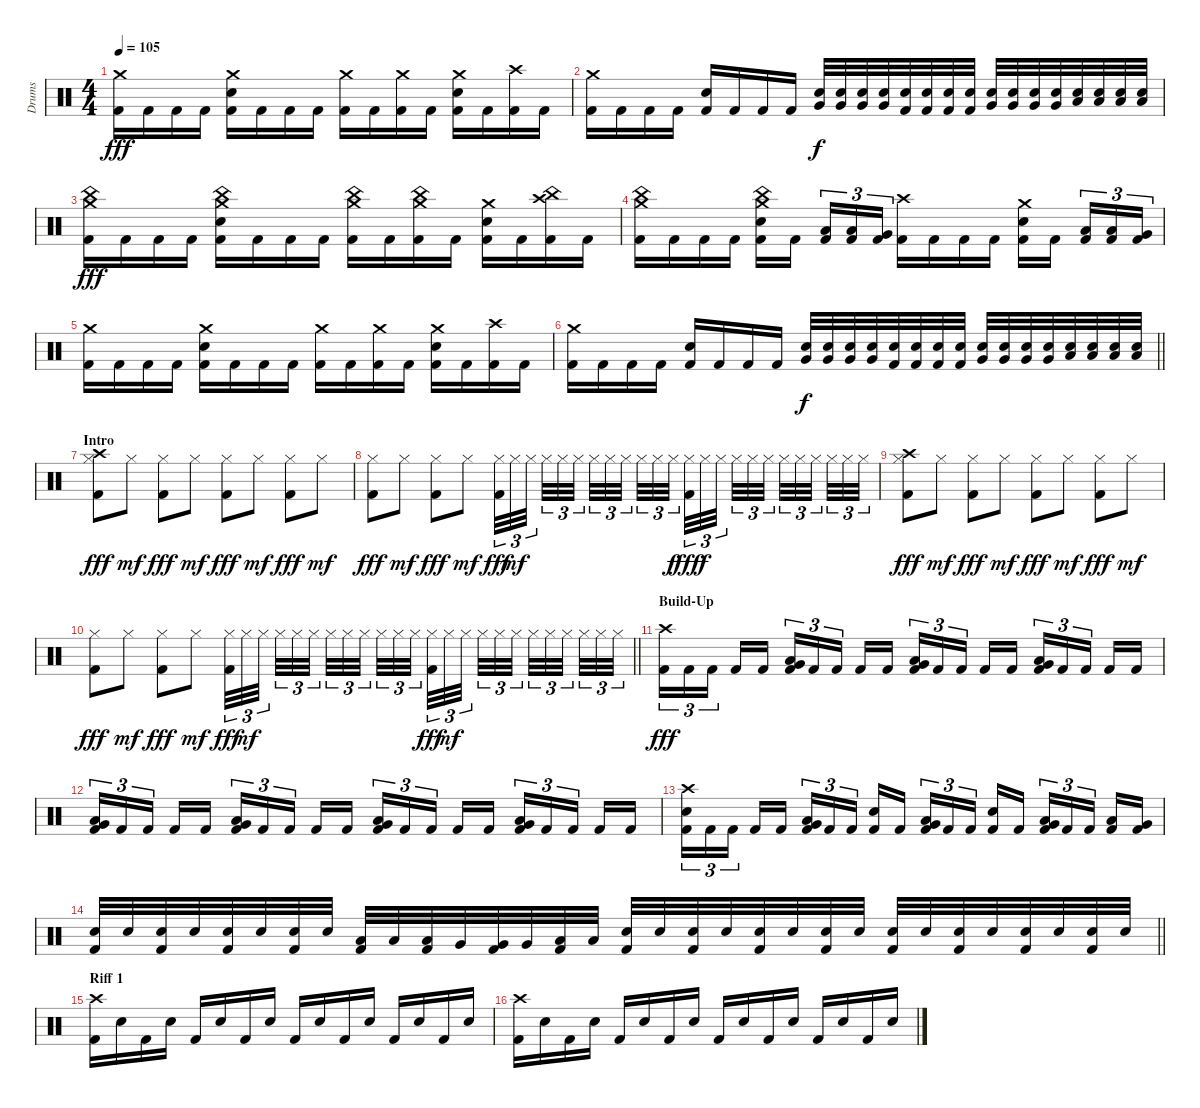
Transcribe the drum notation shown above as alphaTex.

\track ("Drums" "Drums") {instrument percussion}
\staff {score}
\articulation defaults
\ts (4 4)
\tempo 105
\clef neutral
\ks c
("Crash medium (hit)" "Kick (hit) 2").16{dy fff} "Kick (hit) 2".16 "Kick (hit) 2".16 "Kick (hit) 2".16 ("Crash medium (hit)" "Electric Snare (hit)" "Kick (hit) 2").16 "Kick (hit) 2".16 "Kick (hit) 2".16 "Kick (hit) 2".16 ("Crash medium (hit)" "Kick (hit) 2").16 "Kick (hit) 2".16 ("Crash medium (hit)" "Kick (hit) 2").16 "Kick (hit) 2".16 ("Crash medium (hit)" "Electric Snare (hit)" "Kick (hit) 2").16 "Kick (hit) 2".16 ("Crash high (hit)" "Kick (hit) 2").16 "Kick (hit) 2".16 |
("Crash medium (hit)" "Kick (hit) 2").16 "Kick (hit) 2".16 "Kick (hit) 2".16 "Kick (hit) 2".16 ("Electric Snare (hit)" "Kick (hit) 2").16 "Kick (hit) 2".16 "Kick (hit) 2".16 "Kick (hit) 2".16 ("Electric Snare (hit)" "Very Low Tom (hit)").32{dy f} ("Electric Snare (hit)" "Very Low Tom (hit)").32 ("Electric Snare (hit)" "Very Low Tom (hit)").32 ("Electric Snare (hit)" "Very Low Tom (hit)").32 ("Electric Snare (hit)" "Kick (hit) 2").32 ("Electric Snare (hit)" "Kick (hit) 2").32 ("Electric Snare (hit)" "Kick (hit) 2").32 ("Electric Snare (hit)" "Kick (hit) 2").32 ("Electric Snare (hit)" "Very Low Tom (hit)").32 ("Electric Snare (hit)" "Very Low Tom (hit)").32 ("Electric Snare (hit)" "Very Low Tom (hit)").32 ("Electric Snare (hit)" "Very Low Tom (hit)").32 ("Electric Snare (hit)" "Low Tom (hit)").32 ("Electric Snare (hit)" "Low Tom (hit)").32 ("Electric Snare (hit)" "Low Tom (hit)").32 ("Electric Snare (hit)" "Low Tom (hit)").32 |
("China (hit)" "Crash medium (hit)" "Kick (hit) 2").16{dy fff} "Kick (hit) 2".16 "Kick (hit) 2".16 "Kick (hit) 2".16 ("Crash medium (hit)" "China (hit)" "Electric Snare (hit)" "Kick (hit) 2").16 "Kick (hit) 2".16 "Kick (hit) 2".16 "Kick (hit) 2".16 ("Crash medium (hit)" "China (hit)" "Kick (hit) 2").16 "Kick (hit) 2".16 ("Crash medium (hit)" "China (hit)" "Kick (hit) 2").16 "Kick (hit) 2".16 ("Crash medium (hit)" "Electric Snare (hit)" "Kick (hit) 2").16 "Kick (hit) 2".16 ("Crash high (hit)" "China (hit)" "Kick (hit) 2").16 "Kick (hit) 2".16 |
("China (hit)" "Crash medium (hit)" "Kick (hit) 2").16 "Kick (hit) 2".16 "Kick (hit) 2".16 "Kick (hit) 2".16 ("Crash medium (hit)" "China (hit)" "Electric Snare (hit)" "Kick (hit) 2").16 "Kick (hit) 2".16{beam splitsecondary} ("Low Floor Tom (hit)" "Kick (hit) 2").16{tu (3 2)} ("Low Tom (hit)" "Kick (hit) 2").16{tu (3 2)} ("Very Low Tom (hit)" "Kick (hit) 2").16{tu (3 2)} ("Crash high (hit)" "Kick (hit) 2").16 "Kick (hit) 2".16 "Kick (hit) 2".16 "Kick (hit) 2".16 ("Crash medium (hit)" "Electric Snare (hit)" "Kick (hit) 2").16 "Kick (hit) 2".16{beam splitsecondary} ("Low Floor Tom (hit)" "Kick (hit) 2").16{tu (3 2)} ("Low Tom (hit)" "Kick (hit) 2").16{tu (3 2)} ("Very Low Tom (hit)" "Kick (hit) 2").16{tu (3 2)} |
("Crash medium (hit)" "Kick (hit) 2").16 "Kick (hit) 2".16 "Kick (hit) 2".16 "Kick (hit) 2".16 ("Crash medium (hit)" "Electric Snare (hit)" "Kick (hit) 2").16 "Kick (hit) 2".16 "Kick (hit) 2".16 "Kick (hit) 2".16 ("Crash medium (hit)" "Kick (hit) 2").16 "Kick (hit) 2".16 ("Crash medium (hit)" "Kick (hit) 2").16 "Kick (hit) 2".16 ("Crash medium (hit)" "Electric Snare (hit)" "Kick (hit) 2").16 "Kick (hit) 2".16 ("Crash high (hit)" "Kick (hit) 2").16 "Kick (hit) 2".16 |
\barLineRight lightlight
("Crash medium (hit)" "Kick (hit) 2").16 "Kick (hit) 2".16 "Kick (hit) 2".16 "Kick (hit) 2".16 ("Electric Snare (hit)" "Kick (hit) 2").16 "Kick (hit) 2".16 "Kick (hit) 2".16 "Kick (hit) 2".16 ("Electric Snare (hit)" "Very Low Tom (hit)").32{dy f} ("Electric Snare (hit)" "Very Low Tom (hit)").32 ("Electric Snare (hit)" "Very Low Tom (hit)").32 ("Electric Snare (hit)" "Very Low Tom (hit)").32 ("Electric Snare (hit)" "Kick (hit) 2").32 ("Electric Snare (hit)" "Kick (hit) 2").32 ("Electric Snare (hit)" "Kick (hit) 2").32 ("Electric Snare (hit)" "Kick (hit) 2").32 ("Electric Snare (hit)" "Very Low Tom (hit)").32 ("Electric Snare (hit)" "Very Low Tom (hit)").32 ("Electric Snare (hit)" "Very Low Tom (hit)").32 ("Electric Snare (hit)" "Very Low Tom (hit)").32 ("Electric Snare (hit)" "Low Tom (hit)").32 ("Electric Snare (hit)" "Low Tom (hit)").32 ("Electric Snare (hit)" "Low Tom (hit)").32 ("Electric Snare (hit)" "Low Tom (hit)").32 |
\section ("" "Intro")
("Crash high (hit)" "Hi-Hat (closed)" "Kick (hit) 2").8{dy fff} "Hi-Hat (closed)".8{dy mf} ("Hi-Hat (closed)" "Kick (hit) 2").8{dy fff} "Hi-Hat (closed)".8{dy mf} ("Hi-Hat (closed)" "Kick (hit) 2").8{dy fff} "Hi-Hat (closed)".8{dy mf} ("Hi-Hat (closed)" "Kick (hit) 2").8{dy fff} "Hi-Hat (closed)".8{dy mf} |
("Hi-Hat (closed)" "Kick (hit) 2").8{dy fff} "Hi-Hat (closed)".8{dy mf} ("Hi-Hat (closed)" "Kick (hit) 2").8{dy fff} "Hi-Hat (closed)".8{dy mf} ("Hi-Hat (closed)" "Kick (hit) 2").32{tu (3 2) dy fff} "Hi-Hat (closed)".32{tu (3 2) dy mf} "Hi-Hat (closed)".32{tu (3 2) beam splitsecondary} "Hi-Hat (closed)".32{tu (3 2)} "Hi-Hat (closed)".32{tu (3 2)} "Hi-Hat (closed)".32{tu (3 2) beam splitsecondary} "Hi-Hat (closed)".32{tu (3 2)} "Hi-Hat (closed)".32{tu (3 2)} "Hi-Hat (closed)".32{tu (3 2) beam splitsecondary} "Hi-Hat (closed)".32{tu (3 2)} "Hi-Hat (closed)".32{tu (3 2)} "Hi-Hat (closed)".32{tu (3 2) dy f} ("Hi-Hat (closed)" "Kick (hit) 2").32{tu (3 2) dy fff} "Hi-Hat (closed)".32{tu (3 2) dy f} "Hi-Hat (closed)".32{tu (3 2) beam splitsecondary} "Hi-Hat (closed)".32{tu (3 2)} "Hi-Hat (closed)".32{tu (3 2)} "Hi-Hat (closed)".32{tu (3 2) beam splitsecondary} "Hi-Hat (closed)".32{tu (3 2)} "Hi-Hat (closed)".32{tu (3 2)} "Hi-Hat (closed)".32{tu (3 2) beam splitsecondary} "Hi-Hat (closed)".32{tu (3 2)} "Hi-Hat (closed)".32{tu (3 2)} "Hi-Hat (closed)".32{tu (3 2)} |
("Crash high (hit)" "Hi-Hat (closed)" "Kick (hit) 2").8{dy fff} "Hi-Hat (closed)".8{dy mf} ("Hi-Hat (closed)" "Kick (hit) 2").8{dy fff} "Hi-Hat (closed)".8{dy mf} ("Hi-Hat (closed)" "Kick (hit) 2").8{dy fff} "Hi-Hat (closed)".8{dy mf} ("Hi-Hat (closed)" "Kick (hit) 2").8{dy fff} "Hi-Hat (closed)".8{dy mf} |
\barLineRight lightlight
("Hi-Hat (closed)" "Kick (hit) 2").8{dy fff} "Hi-Hat (closed)".8{dy mf} ("Hi-Hat (closed)" "Kick (hit) 2").8{dy fff} "Hi-Hat (closed)".8{dy mf} ("Hi-Hat (closed)" "Kick (hit) 2").32{tu (3 2) dy fff} "Hi-Hat (closed)".32{tu (3 2) dy mf} "Hi-Hat (closed)".32{tu (3 2) beam splitsecondary} "Hi-Hat (closed)".32{tu (3 2)} "Hi-Hat (closed)".32{tu (3 2)} "Hi-Hat (closed)".32{tu (3 2) beam splitsecondary} "Hi-Hat (closed)".32{tu (3 2)} "Hi-Hat (closed)".32{tu (3 2)} "Hi-Hat (closed)".32{tu (3 2) beam splitsecondary} "Hi-Hat (closed)".32{tu (3 2)} "Hi-Hat (closed)".32{tu (3 2)} "Hi-Hat (closed)".32{tu (3 2)} ("Hi-Hat (closed)" "Kick (hit) 2").32{tu (3 2) dy fff} "Hi-Hat (closed)".32{tu (3 2) dy mf} "Hi-Hat (closed)".32{tu (3 2) beam splitsecondary} "Hi-Hat (closed)".32{tu (3 2)} "Hi-Hat (closed)".32{tu (3 2)} "Hi-Hat (closed)".32{tu (3 2) beam splitsecondary} "Hi-Hat (closed)".32{tu (3 2)} "Hi-Hat (closed)".32{tu (3 2)} "Hi-Hat (closed)".32{tu (3 2) beam splitsecondary} "Hi-Hat (closed)".32{tu (3 2)} "Hi-Hat (closed)".32{tu (3 2)} "Hi-Hat (closed)".32{tu (3 2)} |
\section ("" "Build-Up")
("Crash high (hit)" "Kick (hit) 2").16{tu (3 2) dy fff} "Kick (hit) 2".16{tu (3 2)} "Kick (hit) 2".16{tu (3 2) beam splitsecondary} "Kick (hit) 2".16 "Kick (hit) 2".16 ("Low Floor Tom (hit)" "Very Low Tom (hit)" "Kick (hit) 2").16{tu (3 2)} "Kick (hit) 2".16{tu (3 2)} "Kick (hit) 2".16{tu (3 2) beam splitsecondary} "Kick (hit) 2".16 "Kick (hit) 2".16 ("Low Floor Tom (hit)" "Very Low Tom (hit)" "Kick (hit) 2").16{tu (3 2)} "Kick (hit) 2".16{tu (3 2)} "Kick (hit) 2".16{tu (3 2) beam splitsecondary} "Kick (hit) 2".16 "Kick (hit) 2".16 ("Low Floor Tom (hit)" "Very Low Tom (hit)" "Kick (hit) 2").16{tu (3 2)} "Kick (hit) 2".16{tu (3 2)} "Kick (hit) 2".16{tu (3 2) beam splitsecondary} "Kick (hit) 2".16 "Kick (hit) 2".16 |
("Low Floor Tom (hit)" "Very Low Tom (hit)" "Kick (hit) 2").16{tu (3 2)} "Kick (hit) 2".16{tu (3 2)} "Kick (hit) 2".16{tu (3 2) beam splitsecondary} "Kick (hit) 2".16 "Kick (hit) 2".16 ("Low Floor Tom (hit)" "Very Low Tom (hit)" "Kick (hit) 2").16{tu (3 2)} "Kick (hit) 2".16{tu (3 2)} "Kick (hit) 2".16{tu (3 2) beam splitsecondary} "Kick (hit) 2".16 "Kick (hit) 2".16 ("Low Floor Tom (hit)" "Very Low Tom (hit)" "Kick (hit) 2").16{tu (3 2)} "Kick (hit) 2".16{tu (3 2)} "Kick (hit) 2".16{tu (3 2) beam splitsecondary} "Kick (hit) 2".16 "Kick (hit) 2".16 ("Low Floor Tom (hit)" "Very Low Tom (hit)" "Kick (hit) 2").16{tu (3 2)} "Kick (hit) 2".16{tu (3 2)} "Kick (hit) 2".16{tu (3 2) beam splitsecondary} "Kick (hit) 2".16 "Kick (hit) 2".16 |
("Crash high (hit)" "Electric Snare (hit)" "Kick (hit) 2").16{tu (3 2)} "Kick (hit) 2".16{tu (3 2)} "Kick (hit) 2".16{tu (3 2) beam splitsecondary} "Kick (hit) 2".16 "Kick (hit) 2".16 ("Low Floor Tom (hit)" "Very Low Tom (hit)" "Kick (hit) 2").16{tu (3 2)} "Kick (hit) 2".16{tu (3 2)} "Kick (hit) 2".16{tu (3 2) beam splitsecondary} ("Electric Snare (hit)" "Kick (hit) 2").16 "Kick (hit) 2".16 ("Low Floor Tom (hit)" "Very Low Tom (hit)" "Kick (hit) 2").16{tu (3 2)} "Kick (hit) 2".16{tu (3 2)} "Kick (hit) 2".16{tu (3 2) beam splitsecondary} ("Electric Snare (hit)" "Kick (hit) 2").16 "Kick (hit) 2".16 ("Low Floor Tom (hit)" "Very Low Tom (hit)" "Kick (hit) 2").16{tu (3 2)} "Kick (hit) 2".16{tu (3 2)} "Kick (hit) 2".16{tu (3 2) beam splitsecondary} ("Low Floor Tom (hit)" "Kick (hit) 2").16 ("Very Low Tom (hit)" "Kick (hit) 2").16 |
\barLineRight lightlight
("Electric Snare (hit)" "Kick (hit) 2").32 "Electric Snare (hit)".32 ("Electric Snare (hit)" "Kick (hit) 2").32 "Electric Snare (hit)".32 ("Electric Snare (hit)" "Kick (hit) 2").32 "Electric Snare (hit)".32 ("Electric Snare (hit)" "Kick (hit) 2").32 "Electric Snare (hit)".32 ("Low Floor Tom (hit)" "Kick (hit) 2").32 "Low Floor Tom (hit)".32 ("Low Floor Tom (hit)" "Kick (hit) 2").32 "Very Low Tom (hit)".32 ("Very Low Tom (hit)" "Kick (hit) 2").32 "Very Low Tom (hit)".32 ("Low Tom (hit)" "Kick (hit) 2").32 "Low Tom (hit)".32 ("Electric Snare (hit)" "Kick (hit) 2").32 "Electric Snare (hit)".32 ("Electric Snare (hit)" "Kick (hit) 2").32 "Electric Snare (hit)".32 ("Electric Snare (hit)" "Kick (hit) 2").32 "Electric Snare (hit)".32 ("Electric Snare (hit)" "Kick (hit) 2").32 "Electric Snare (hit)".32 ("Electric Snare (hit)" "Kick (hit) 2").32 "Electric Snare (hit)".32 ("Electric Snare (hit)" "Kick (hit) 2").32 "Electric Snare (hit)".32 ("Electric Snare (hit)" "Kick (hit) 2").32 "Electric Snare (hit)".32 ("Electric Snare (hit)" "Kick (hit) 2").32 "Electric Snare (hit)".32 |
\section ("" "Riff 1")
("Crash high (hit)" "Kick (hit) 2").16 "Electric Snare (hit)".16 "Kick (hit) 2".16 "Electric Snare (hit)".16 "Kick (hit) 2".16 "Electric Snare (hit)".16 "Kick (hit) 2".16 "Electric Snare (hit)".16 "Kick (hit) 2".16 "Electric Snare (hit)".16 "Kick (hit) 2".16 "Electric Snare (hit)".16 "Kick (hit) 2".16 "Electric Snare (hit)".16 "Kick (hit) 2".16 "Electric Snare (hit)".16 |
("Crash high (hit)" "Kick (hit) 2").16 "Electric Snare (hit)".16 "Kick (hit) 2".16 "Electric Snare (hit)".16 "Kick (hit) 2".16 "Electric Snare (hit)".16 "Kick (hit) 2".16 "Electric Snare (hit)".16 "Kick (hit) 2".16 "Electric Snare (hit)".16 "Kick (hit) 2".16 "Electric Snare (hit)".16 "Kick (hit) 2".16 "Electric Snare (hit)".16 "Kick (hit) 2".16 "Electric Snare (hit)".16
